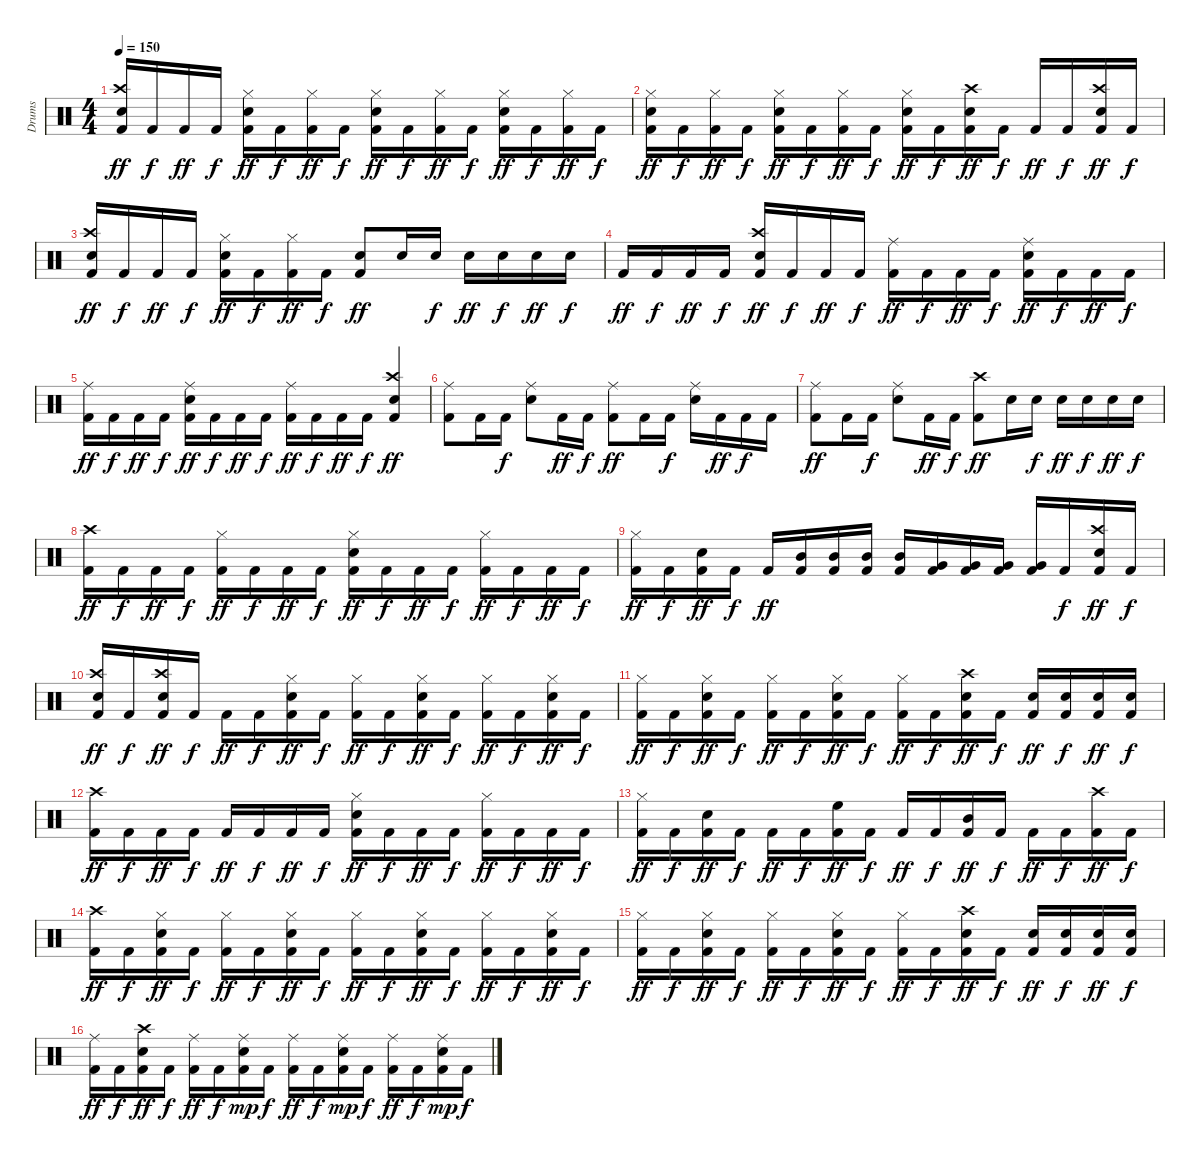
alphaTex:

\track ("Drums" "Drums") {instrument percussion}
\staff {score}
\articulation defaults
\ts (4 4)
\tempo 150
\clef neutral
\ks c
("Kick (hit) 2" "Crash high (hit)" "Snare (hit) 2").16{dy ff} "Kick (hit) 2".16{dy f} "Kick (hit) 2".16{dy ff} "Kick (hit) 2".16{dy f} ("Kick (hit) 2" "Hi-Hat (closed)" "Snare (hit) 2").16{dy ff} "Kick (hit) 2".16{dy f} ("Hi-Hat (closed)" "Kick (hit) 2").16{dy ff} "Kick (hit) 2".16{dy f} ("Kick (hit) 2" "Hi-Hat (closed)" "Snare (hit) 2").16{dy ff} "Kick (hit) 2".16{dy f} ("Hi-Hat (closed)" "Kick (hit) 2").16{dy ff} "Kick (hit) 2".16{dy f} ("Kick (hit) 2" "Hi-Hat (closed)" "Snare (hit) 2").16{dy ff} "Kick (hit) 2".16{dy f} ("Hi-Hat (closed)" "Kick (hit) 2").16{dy ff} "Kick (hit) 2".16{dy f} |
("Kick (hit) 2" "Hi-Hat (closed)" "Snare (hit) 2").16{dy ff} "Kick (hit) 2".16{dy f} ("Hi-Hat (closed)" "Kick (hit) 2").16{dy ff} "Kick (hit) 2".16{dy f} ("Kick (hit) 2" "Hi-Hat (closed)" "Snare (hit) 2").16{dy ff} "Kick (hit) 2".16{dy f} ("Hi-Hat (closed)" "Kick (hit) 2").16{dy ff} "Kick (hit) 2".16{dy f} ("Kick (hit) 2" "Hi-Hat (closed)" "Snare (hit) 2").16{dy ff} "Kick (hit) 2".16{dy f} ("Kick (hit) 2" "Snare (hit) 2" "Crash high (hit)").16{dy ff} "Kick (hit) 2".16{dy f} "Kick (hit) 2".16{dy ff} "Kick (hit) 2".16{dy f} ("Kick (hit) 2" "Snare (hit) 2" "Crash high (hit)").16{dy ff} "Kick (hit) 2".16{dy f} |
("Kick (hit) 2" "Crash high (hit)" "Snare (hit) 2").16{dy ff} "Kick (hit) 2".16{dy f} "Kick (hit) 2".16{dy ff} "Kick (hit) 2".16{dy f} ("Kick (hit) 2" "Hi-Hat (closed)" "Snare (hit) 2").16{dy ff} "Kick (hit) 2".16{dy f} ("Hi-Hat (closed)" "Kick (hit) 2").16{dy ff} "Kick (hit) 2".16{dy f} ("Kick (hit) 2" "Snare (hit) 2").8{dy ff} "Snare (hit) 2".16 "Snare (hit) 2".16{dy f} "Snare (hit) 2".16{dy ff} "Snare (hit) 2".16{dy f} "Snare (hit) 2".16{dy ff} "Snare (hit) 2".16{dy f} |
"Kick (hit) 2".16{dy ff} "Kick (hit) 2".16{dy f} "Kick (hit) 2".16{dy ff} "Kick (hit) 2".16{dy f} ("Kick (hit) 2" "Crash high (hit)" "Snare (hit) 2").16{dy ff} "Kick (hit) 2".16{dy f} "Kick (hit) 2".16{dy ff} "Kick (hit) 2".16{dy f} ("Ride (middle)" "Kick (hit) 2").16{dy ff} "Kick (hit) 2".16{dy f} "Kick (hit) 2".16{dy ff} "Kick (hit) 2".16{dy f} ("Kick (hit) 2" "Snare (hit) 2" "Ride (middle)").16{dy ff} "Kick (hit) 2".16{dy f} "Kick (hit) 2".16{dy ff} "Kick (hit) 2".16{dy f} |
("Ride (middle)" "Kick (hit) 2").16{dy ff} "Kick (hit) 2".16{dy f} "Kick (hit) 2".16{dy ff} "Kick (hit) 2".16{dy f} ("Kick (hit) 2" "Snare (hit) 2" "Ride (middle)").16{dy ff} "Kick (hit) 2".16{dy f} "Kick (hit) 2".16{dy ff} "Kick (hit) 2".16{dy f} ("Ride (middle)" "Kick (hit) 2").16{dy ff} "Kick (hit) 2".16{dy f} "Kick (hit) 2".16{dy ff} "Kick (hit) 2".16{dy f} ("Kick (hit) 2" "Crash high (hit)" "Snare (hit) 2").4{dy ff} |
("Ride (middle)" "Kick (hit) 2").8 "Kick (hit) 2".16 "Kick (hit) 2".16{dy f} ("Snare (hit) 2" "Ride (middle)").8 "Kick (hit) 2".16{dy ff} "Kick (hit) 2".16{dy f} ("Ride (middle)" "Kick (hit) 2").8{dy ff} "Kick (hit) 2".16 "Kick (hit) 2".16{dy f} ("Snare (hit) 2" "Ride (middle)").16 "Kick (hit) 2".16{dy ff} "Kick (hit) 2".16{dy f} "Kick (hit) 2".16 |
("Ride (middle)" "Kick (hit) 2").8{dy ff} "Kick (hit) 2".16 "Kick (hit) 2".16{dy f} ("Snare (hit) 2" "Ride (middle)").8 "Kick (hit) 2".16{dy ff} "Kick (hit) 2".16{dy f} ("Crash high (hit)" "Kick (hit) 2").8{dy ff} "Snare (hit) 2".16 "Snare (hit) 2".16{dy f} "Snare (hit) 2".16{dy ff} "Snare (hit) 2".16{dy f} "Snare (hit) 2".16{dy ff} "Snare (hit) 2".16{dy f} |
("Crash high (hit)" "Kick (hit) 2").16{dy ff} "Kick (hit) 2".16{dy f} "Kick (hit) 2".16{dy ff} "Kick (hit) 2".16{dy f} ("Hi-Hat (closed)" "Kick (hit) 2").16{dy ff} "Kick (hit) 2".16{dy f} "Kick (hit) 2".16{dy ff} "Kick (hit) 2".16{dy f} ("Kick (hit) 2" "Snare (hit) 2" "Hi-Hat (closed)").16{dy ff} "Kick (hit) 2".16{dy f} "Kick (hit) 2".16{dy ff} "Kick (hit) 2".16{dy f} ("Hi-Hat (closed)" "Kick (hit) 2").16{dy ff} "Kick (hit) 2".16{dy f} "Kick (hit) 2".16{dy ff} "Kick (hit) 2".16{dy f} |
("Hi-Hat (closed)" "Kick (hit) 2").16{dy ff} "Kick (hit) 2".16{dy f} ("Snare (hit) 2" "Kick (hit) 2").16{dy ff} "Kick (hit) 2".16{dy f} "Kick (hit) 2".16{dy ff} ("Mid Tom (hit)" "Kick (hit) 2").16 ("Mid Tom (hit)" "Kick (hit) 2").16 ("Mid Tom (hit)" "Kick (hit) 2").16 ("Mid Tom (hit)" "Kick (hit) 2").16 ("Very Low Tom (hit)" "Kick (hit) 2").16 ("Very Low Tom (hit)" "Kick (hit) 2").16 ("Very Low Tom (hit)" "Kick (hit) 2").16 ("Very Low Tom (hit)" "Kick (hit) 2").16 "Kick (hit) 2".16{dy f} ("Kick (hit) 2" "Crash high (hit)" "Snare (hit) 2").16{dy ff} "Kick (hit) 2".16{dy f} |
("Kick (hit) 2" "Snare (hit) 2" "Crash high (hit)").16{dy ff} "Kick (hit) 2".16{dy f} ("Kick (hit) 2" "Snare (hit) 2" "Crash high (hit)").16{dy ff} "Kick (hit) 2".16{dy f} "Kick (hit) 2".16{dy ff} "Kick (hit) 2".16{dy f} ("Kick (hit) 2" "Hi-Hat (closed)" "Snare (hit) 2").16{dy ff} "Kick (hit) 2".16{dy f} ("Hi-Hat (closed)" "Kick (hit) 2").16{dy ff} "Kick (hit) 2".16{dy f} ("Kick (hit) 2" "Hi-Hat (closed)" "Snare (hit) 2").16{dy ff} "Kick (hit) 2".16{dy f} ("Hi-Hat (closed)" "Kick (hit) 2").16{dy ff} "Kick (hit) 2".16{dy f} ("Kick (hit) 2" "Hi-Hat (closed)" "Snare (hit) 2").16{dy ff} "Kick (hit) 2".16{dy f} |
("Hi-Hat (closed)" "Kick (hit) 2").16{dy ff} "Kick (hit) 2".16{dy f} ("Kick (hit) 2" "Hi-Hat (closed)" "Snare (hit) 2").16{dy ff} "Kick (hit) 2".16{dy f} ("Hi-Hat (closed)" "Kick (hit) 2").16{dy ff} "Kick (hit) 2".16{dy f} ("Kick (hit) 2" "Hi-Hat (closed)" "Snare (hit) 2").16{dy ff} "Kick (hit) 2".16{dy f} ("Hi-Hat (closed)" "Kick (hit) 2").16{dy ff} "Kick (hit) 2".16{dy f} ("Snare (hit) 2" "Crash high (hit)" "Kick (hit) 2").16{dy ff} "Kick (hit) 2".16{dy f} ("Snare (hit) 2" "Kick (hit) 2").16{dy ff} ("Snare (hit) 2" "Kick (hit) 2").16{dy f} ("Snare (hit) 2" "Kick (hit) 2").16{dy ff} ("Snare (hit) 2" "Kick (hit) 2").16{dy f} |
("Crash high (hit)" "Kick (hit) 2").16{dy ff} "Kick (hit) 2".16{dy f} "Kick (hit) 2".16{dy ff} "Kick (hit) 2".16{dy f} "Kick (hit) 2".16{dy ff} "Kick (hit) 2".16{dy f} "Kick (hit) 2".16{dy ff} "Kick (hit) 2".16{dy f} ("Snare (hit) 2" "Hi-Hat (closed)" "Kick (hit) 2").16{dy ff} "Kick (hit) 2".16{dy f} "Kick (hit) 2".16{dy ff} "Kick (hit) 2".16{dy f} ("Hi-Hat (closed)" "Kick (hit) 2").16{dy ff} "Kick (hit) 2".16{dy f} "Kick (hit) 2".16{dy ff} "Kick (hit) 2".16{dy f} |
("Hi-Hat (closed)" "Kick (hit) 2").16{dy ff} "Kick (hit) 2".16{dy f} ("Snare (hit) 2" "Kick (hit) 2").16{dy ff} "Kick (hit) 2".16{dy f} "Kick (hit) 2".16{dy ff} "Kick (hit) 2".16{dy f} ("High Floor Tom (hit)" "Kick (hit) 2").16{dy ff} "Kick (hit) 2".16{dy f} "Kick (hit) 2".16{dy ff} "Kick (hit) 2".16{dy f} ("Mid Tom (hit)" "Kick (hit) 2").16{dy ff} "Kick (hit) 2".16{dy f} "Kick (hit) 2".16{dy ff} "Kick (hit) 2".16{dy f} ("Crash high (hit)" "Kick (hit) 2").16{dy ff} "Kick (hit) 2".16{dy f} |
("Crash high (hit)" "Kick (hit) 2").16{dy ff} "Kick (hit) 2".16{dy f} ("Kick (hit) 2" "Hi-Hat (closed)" "Snare (hit) 2").16{dy ff} "Kick (hit) 2".16{dy f} ("Hi-Hat (closed)" "Kick (hit) 2").16{dy ff} "Kick (hit) 2".16{dy f} ("Kick (hit) 2" "Hi-Hat (closed)" "Snare (hit) 2").16{dy ff} "Kick (hit) 2".16{dy f} ("Hi-Hat (closed)" "Kick (hit) 2").16{dy ff} "Kick (hit) 2".16{dy f} ("Kick (hit) 2" "Hi-Hat (closed)" "Snare (hit) 2").16{dy ff} "Kick (hit) 2".16{dy f} ("Hi-Hat (closed)" "Kick (hit) 2").16{dy ff} "Kick (hit) 2".16{dy f} ("Kick (hit) 2" "Hi-Hat (closed)" "Snare (hit) 2").16{dy ff} "Kick (hit) 2".16{dy f} |
("Hi-Hat (closed)" "Kick (hit) 2").16{dy ff} "Kick (hit) 2".16{dy f} ("Kick (hit) 2" "Hi-Hat (closed)" "Snare (hit) 2").16{dy ff} "Kick (hit) 2".16{dy f} ("Hi-Hat (closed)" "Kick (hit) 2").16{dy ff} "Kick (hit) 2".16{dy f} ("Kick (hit) 2" "Hi-Hat (closed)" "Snare (hit) 2").16{dy ff} "Kick (hit) 2".16{dy f} ("Hi-Hat (closed)" "Kick (hit) 2").16{dy ff} "Kick (hit) 2".16{dy f} ("Kick (hit) 2" "Snare (hit) 2" "Crash high (hit)").16{dy ff} "Kick (hit) 2".16{dy f} ("Snare (hit) 2" "Kick (hit) 2").16{dy ff} ("Snare (hit) 2" "Kick (hit) 2").16{dy f} ("Snare (hit) 2" "Kick (hit) 2").16{dy ff} ("Snare (hit) 2" "Kick (hit) 2").16{dy f} |
("Ride (middle)" "Kick (hit) 2").16{dy ff} "Kick (hit) 2".16{dy f} ("Snare (hit) 2" "Crash high (hit)" "Kick (hit) 2").16{dy ff} "Kick (hit) 2".16{dy f} ("Ride (middle)" "Kick (hit) 2").16{dy ff} "Kick (hit) 2".16{dy f} ("Kick (hit) 2" "Snare (hit) 2" "Ride (middle)").16{dy mp} "Kick (hit) 2".16{dy f} ("Ride (middle)" "Kick (hit) 2").16{dy ff} "Kick (hit) 2".16{dy f} ("Kick (hit) 2" "Snare (hit) 2" "Ride (middle)").16{dy mp} "Kick (hit) 2".16{dy f} ("Ride (middle)" "Kick (hit) 2").16{dy ff} "Kick (hit) 2".16{dy f} ("Kick (hit) 2" "Snare (hit) 2" "Ride (middle)").16{dy mp} "Kick (hit) 2".16{dy f}
